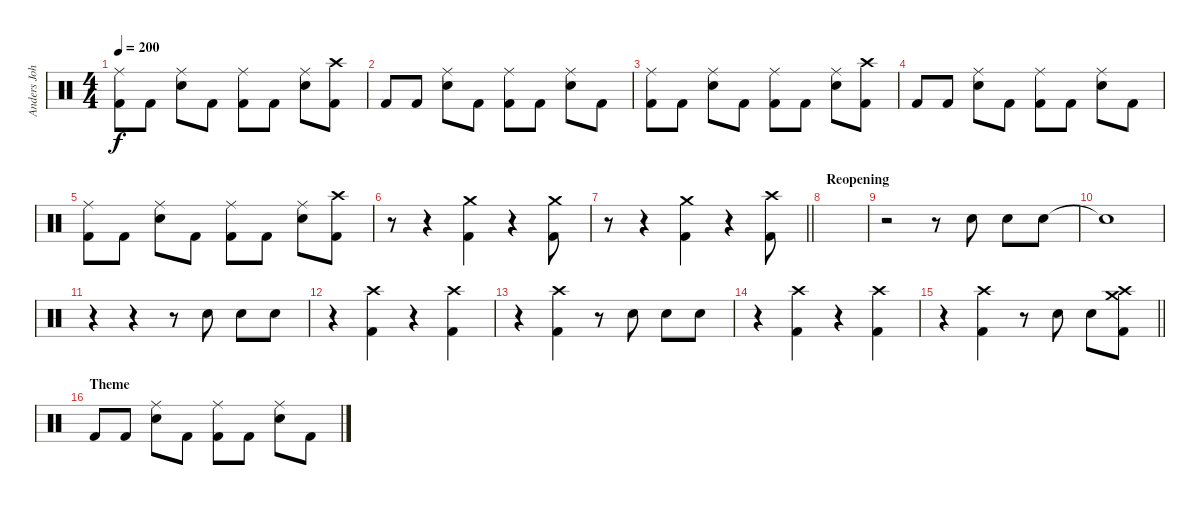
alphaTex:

\track ("Anders Johansson" "Anders Joh") {instrument percussion}
\staff {score}
\articulation defaults
\ts (4 4)
\tempo 200
\clef neutral
\ks c
("Ride (middle)" "Kick (hit) 2").8{dy f} "Kick (hit) 2".8 ("Ride (middle)" "Snare (hit) 2").8 "Kick (hit) 2".8 ("Ride (middle)" "Kick (hit) 2").8 "Kick (hit) 2".8 ("Ride (middle)" "Snare (hit) 2").8 ("Crash high (hit)" "Kick (hit) 2").8 |
"Kick (hit) 2".8 "Kick (hit) 2".8 ("Ride (middle)" "Snare (hit) 2").8 "Kick (hit) 2".8 ("Ride (middle)" "Kick (hit) 2").8 "Kick (hit) 2".8 ("Ride (middle)" "Snare (hit) 2").8 "Kick (hit) 2".8 |
("Ride (middle)" "Kick (hit) 2").8 "Kick (hit) 2".8 ("Ride (middle)" "Snare (hit) 2").8 "Kick (hit) 2".8 ("Ride (middle)" "Kick (hit) 2").8 "Kick (hit) 2".8 ("Ride (middle)" "Snare (hit) 2").8 ("Crash high (hit)" "Kick (hit) 2").8 |
"Kick (hit) 2".8 "Kick (hit) 2".8 ("Ride (middle)" "Snare (hit) 2").8 "Kick (hit) 2".8 ("Ride (middle)" "Kick (hit) 2").8 "Kick (hit) 2".8 ("Ride (middle)" "Snare (hit) 2").8 "Kick (hit) 2".8 |
("Ride (middle)" "Kick (hit) 2").8 "Kick (hit) 2".8 ("Ride (middle)" "Snare (hit) 2").8 "Kick (hit) 2".8 ("Ride (middle)" "Kick (hit) 2").8 "Kick (hit) 2".8 ("Ride (middle)" "Snare (hit) 2").8 ("Crash high (hit)" "Kick (hit) 2").8 |
r.8 r.4 ("Crash medium (hit)" "Kick (hit) 2").4 r.4 ("Crash medium (hit)" "Kick (hit) 2").8 |
\barLineRight lightlight
r.8 r.4 ("Crash medium (hit)" "Kick (hit) 2").4 r.4 ("Crash high (hit)" "Kick (hit) 2").8 |
\section ("" "Reopening")
|
r.2 r.8 "Snare (hit) 2".8 "Snare (hit) 2".8 "Snare (hit) 2".8 |
"Snare (hit)"{t}.1 |
r.4 r.4 r.8 "Snare (hit) 2".8 "Snare (hit) 2".8 "Snare (hit) 2".8 |
r.4 ("Crash high (hit)" "Kick (hit) 2").4 r.4 ("Crash high (hit)" "Kick (hit) 2").4 |
r.4 ("Crash high (hit)" "Kick (hit) 2").4 r.8 "Snare (hit) 2".8 "Snare (hit) 2".8 "Snare (hit) 2".8 |
r.4 ("Crash high (hit)" "Kick (hit) 2").4 r.4 ("Crash high (hit)" "Kick (hit) 2").4 |
\barLineRight lightlight
r.4 ("Crash high (hit)" "Kick (hit) 2").4 r.8 "Snare (hit) 2".8 "Snare (hit) 2".8 ("Crash medium (hit)" "Crash high (hit)" "Kick (hit) 2").8 |
\section ("" "Theme")
"Kick (hit) 2".8 "Kick (hit) 2".8 ("Ride (middle)" "Snare (hit) 2").8 "Kick (hit) 2".8 ("Ride (middle)" "Kick (hit) 2").8 "Kick (hit) 2".8 ("Ride (middle)" "Snare (hit) 2").8 "Kick (hit) 2".8
